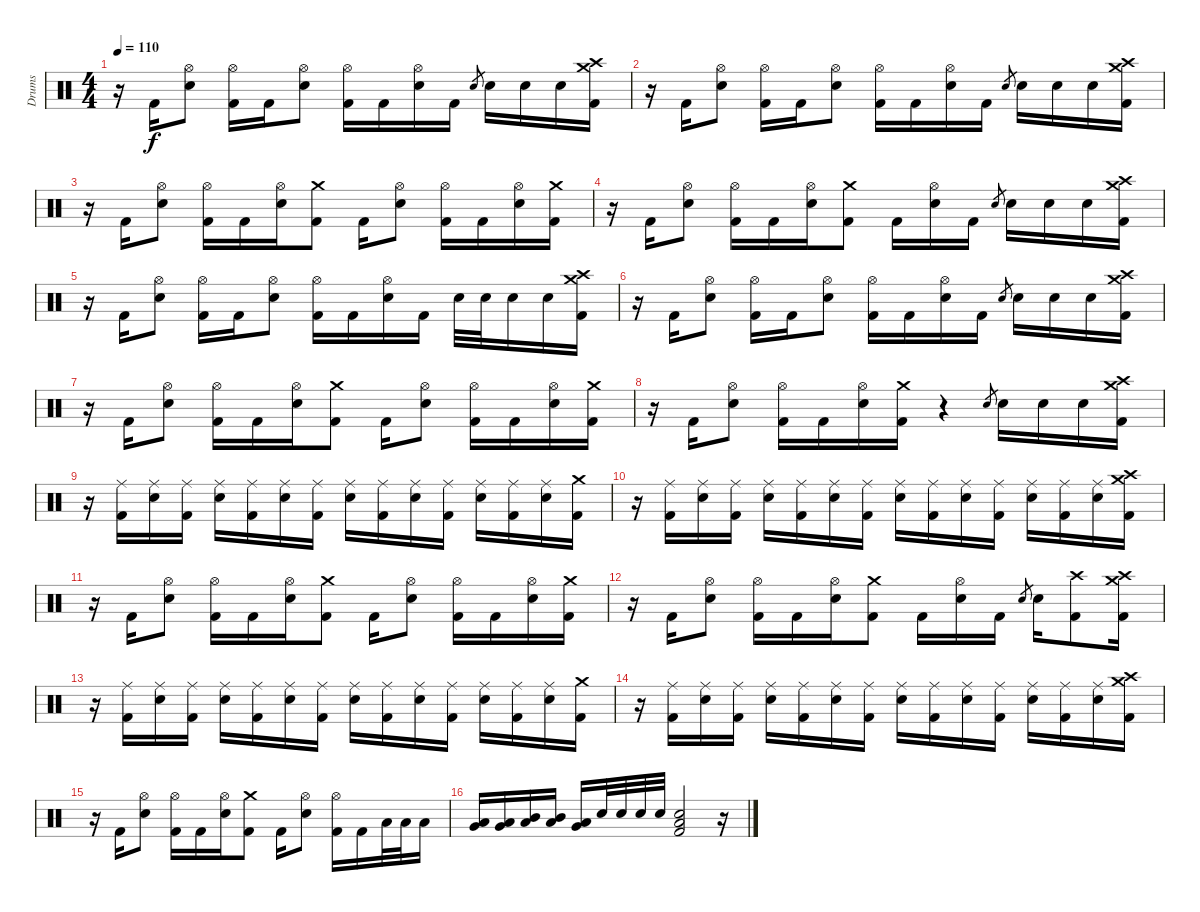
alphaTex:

\track ("Drums" "Drums") {instrument percussion}
\staff {score}
\articulation defaults
\ts (4 4)
\tempo 110
\clef neutral
\ks c
r.16{dy f} "Kick (hit) 2".16 ("Hi-Hat (open)" "Electric Snare (hit)").8 ("Hi-Hat (open)" "Kick (hit) 2").16 "Kick (hit) 2".16 ("Hi-Hat (open)" "Electric Snare (hit)").8 ("Hi-Hat (open)" "Kick (hit) 2").16 "Kick (hit) 2".16 ("Hi-Hat (open)" "Electric Snare (hit)").16 "Kick (hit) 2".16 "Electric Snare (hit)".8{gr} "Electric Snare (hit)".16 "Electric Snare (hit)".16 "Electric Snare (hit)".16 ("Crash medium (hit)" "Crash high (hit)" "Kick (hit) 2").16 |
r.16 "Kick (hit) 2".16 ("Hi-Hat (open)" "Electric Snare (hit)").8 ("Hi-Hat (open)" "Kick (hit) 2").16 "Kick (hit) 2".16 ("Hi-Hat (open)" "Electric Snare (hit)").8 ("Hi-Hat (open)" "Kick (hit) 2").16 "Kick (hit) 2".16 ("Hi-Hat (open)" "Electric Snare (hit)").16 "Kick (hit) 2".16 "Electric Snare (hit)".8{gr} "Electric Snare (hit)".16 "Electric Snare (hit)".16 "Electric Snare (hit)".16 ("Crash medium (hit)" "Crash high (hit)" "Kick (hit) 2").16 |
r.16 "Kick (hit) 2".16 ("Hi-Hat (open)" "Electric Snare (hit)").8 ("Hi-Hat (open)" "Kick (hit) 2").16 "Kick (hit) 2".16 ("Hi-Hat (open)" "Electric Snare (hit)").16 ("Crash medium (hit)" "Kick (hit) 2").8 "Kick (hit) 2".16 ("Hi-Hat (open)" "Electric Snare (hit)").8 ("Hi-Hat (open)" "Kick (hit) 2").16 "Kick (hit) 2".16 ("Hi-Hat (open)" "Electric Snare (hit)").16 ("Crash medium (hit)" "Kick (hit) 2").16 |
r.16 "Kick (hit) 2".16 ("Hi-Hat (open)" "Electric Snare (hit)").8 ("Hi-Hat (open)" "Kick (hit) 2").16 "Kick (hit) 2".16 ("Hi-Hat (open)" "Electric Snare (hit)").16 ("Crash medium (hit)" "Kick (hit) 2").8 "Kick (hit) 2".16 ("Hi-Hat (open)" "Electric Snare (hit)").16 "Kick (hit) 2".16 "Electric Snare (hit)".8{gr} "Electric Snare (hit)".16 "Electric Snare (hit)".16 "Electric Snare (hit)".16 ("Crash medium (hit)" "Crash high (hit)" "Kick (hit) 2").16 |
r.16 "Kick (hit) 2".16 ("Hi-Hat (open)" "Electric Snare (hit)").8 ("Hi-Hat (open)" "Kick (hit) 2").16 "Kick (hit) 2".16 ("Hi-Hat (open)" "Electric Snare (hit)").8 ("Hi-Hat (open)" "Kick (hit) 2").16 "Kick (hit) 2".16 ("Hi-Hat (open)" "Electric Snare (hit)").16 "Kick (hit) 2".16 "Electric Snare (hit)".32 "Electric Snare (hit)".32 "Electric Snare (hit)".16 "Electric Snare (hit)".16 ("Crash medium (hit)" "Crash high (hit)" "Kick (hit) 2").16 |
r.16 "Kick (hit) 2".16 ("Hi-Hat (open)" "Electric Snare (hit)").8 ("Hi-Hat (open)" "Kick (hit) 2").16 "Kick (hit) 2".16 ("Hi-Hat (open)" "Electric Snare (hit)").8 ("Hi-Hat (open)" "Kick (hit) 2").16 "Kick (hit) 2".16 ("Hi-Hat (open)" "Electric Snare (hit)").16 "Kick (hit) 2".16 "Electric Snare (hit)".8{gr} "Electric Snare (hit)".16 "Electric Snare (hit)".16 "Electric Snare (hit)".16 ("Crash medium (hit)" "Crash high (hit)" "Kick (hit) 2").16 |
r.16 "Kick (hit) 2".16 ("Hi-Hat (open)" "Electric Snare (hit)").8 ("Hi-Hat (open)" "Kick (hit) 2").16 "Kick (hit) 2".16 ("Hi-Hat (open)" "Electric Snare (hit)").16 ("Crash medium (hit)" "Kick (hit) 2").8 "Kick (hit) 2".16 ("Hi-Hat (open)" "Electric Snare (hit)").8 ("Hi-Hat (open)" "Kick (hit) 2").16 "Kick (hit) 2".16 ("Hi-Hat (open)" "Electric Snare (hit)").16 ("Crash medium (hit)" "Kick (hit) 2").16 |
r.16 "Kick (hit) 2".16 ("Hi-Hat (open)" "Electric Snare (hit)").8 ("Hi-Hat (open)" "Kick (hit) 2").16 "Kick (hit) 2".16 ("Hi-Hat (open)" "Electric Snare (hit)").16 ("Crash medium (hit)" "Kick (hit) 2").16 r.4{volume 0} "Electric Snare (hit)".8{gr} "Electric Snare (hit)".16{volume 15} "Electric Snare (hit)".16 "Electric Snare (hit)".16 ("Crash medium (hit)" "Crash high (hit)" "Kick (hit) 2").16 |
r.16 ("Ride (middle)" "Kick (hit) 2").16 ("Ride (middle)" "Electric Snare (hit)").16 ("Ride (middle)" "Kick (hit) 2").16 ("Ride (middle)" "Electric Snare (hit)").16 ("Ride (middle)" "Kick (hit) 2").16 ("Ride (middle)" "Electric Snare (hit)").16 ("Ride (middle)" "Kick (hit) 2").16 ("Ride (middle)" "Electric Snare (hit)").16 ("Ride (middle)" "Kick (hit) 2").16 ("Ride (middle)" "Electric Snare (hit)").16 ("Ride (middle)" "Kick (hit) 2").16 ("Ride (middle)" "Electric Snare (hit)").16 ("Ride (middle)" "Kick (hit) 2").16 ("Ride (middle)" "Electric Snare (hit)").16 ("Crash medium (hit)" "Kick (hit) 2").16 |
r.16 ("Ride (middle)" "Kick (hit) 2").16 ("Ride (middle)" "Electric Snare (hit)").16 ("Ride (middle)" "Kick (hit) 2").16 ("Ride (middle)" "Electric Snare (hit)").16 ("Ride (middle)" "Kick (hit) 2").16 ("Ride (middle)" "Electric Snare (hit)").16 ("Ride (middle)" "Kick (hit) 2").16 ("Ride (middle)" "Electric Snare (hit)").16 ("Ride (middle)" "Kick (hit) 2").16 ("Ride (middle)" "Electric Snare (hit)").16 ("Ride (middle)" "Kick (hit) 2").16 ("Ride (middle)" "Electric Snare (hit)").16 ("Ride (middle)" "Kick (hit) 2").16 ("Ride (middle)" "Electric Snare (hit)").16 ("Crash medium (hit)" "Crash high (hit)" "Kick (hit) 2").16 |
r.16 "Kick (hit) 2".16 ("Hi-Hat (open)" "Electric Snare (hit)").8 ("Hi-Hat (open)" "Kick (hit) 2").16 "Kick (hit) 2".16 ("Hi-Hat (open)" "Electric Snare (hit)").16 ("Crash medium (hit)" "Kick (hit) 2").8 "Kick (hit) 2".16 ("Hi-Hat (open)" "Electric Snare (hit)").8 ("Hi-Hat (open)" "Kick (hit) 2").16 "Kick (hit) 2".16 ("Hi-Hat (open)" "Electric Snare (hit)").16 ("Crash medium (hit)" "Kick (hit) 2").16 |
r.16 "Kick (hit) 2".16 ("Hi-Hat (open)" "Electric Snare (hit)").8 ("Hi-Hat (open)" "Kick (hit) 2").16 "Kick (hit) 2".16 ("Hi-Hat (open)" "Electric Snare (hit)").16 ("Crash medium (hit)" "Kick (hit) 2").8 "Kick (hit) 2".16 ("Hi-Hat (open)" "Electric Snare (hit)").16 "Kick (hit) 2".16 "Electric Snare (hit)".8{gr} "Electric Snare (hit)".16 ("Crash high (hit)" "Kick (hit) 2").8 ("Crash medium (hit)" "Crash high (hit)" "Kick (hit) 2").16 |
r.16 ("Ride (middle)" "Kick (hit) 2").16 ("Ride (middle)" "Electric Snare (hit)").16 ("Ride (middle)" "Kick (hit) 2").16 ("Ride (middle)" "Electric Snare (hit)").16 ("Ride (middle)" "Kick (hit) 2").16 ("Ride (middle)" "Electric Snare (hit)").16 ("Ride (middle)" "Kick (hit) 2").16 ("Ride (middle)" "Electric Snare (hit)").16 ("Ride (middle)" "Kick (hit) 2").16 ("Ride (middle)" "Electric Snare (hit)").16 ("Ride (middle)" "Kick (hit) 2").16 ("Ride (middle)" "Electric Snare (hit)").16 ("Ride (middle)" "Kick (hit) 2").16 ("Ride (middle)" "Electric Snare (hit)").16 ("Crash medium (hit)" "Kick (hit) 2").16 |
r.16 ("Ride (middle)" "Kick (hit) 2").16 ("Ride (middle)" "Electric Snare (hit)").16 ("Ride (middle)" "Kick (hit) 2").16 ("Ride (middle)" "Electric Snare (hit)").16 ("Ride (middle)" "Kick (hit) 2").16 ("Ride (middle)" "Electric Snare (hit)").16 ("Ride (middle)" "Kick (hit) 2").16 ("Ride (middle)" "Electric Snare (hit)").16 ("Ride (middle)" "Kick (hit) 2").16 ("Ride (middle)" "Electric Snare (hit)").16 ("Ride (middle)" "Kick (hit) 2").16 ("Ride (middle)" "Electric Snare (hit)").16 ("Ride (middle)" "Kick (hit) 2").16 ("Ride (middle)" "Electric Snare (hit)").16 ("Crash medium (hit)" "Crash high (hit)" "Kick (hit) 2").16 |
r.16 "Kick (hit) 2".16 ("Hi-Hat (open)" "Electric Snare (hit)").8 ("Hi-Hat (open)" "Kick (hit) 2").16 "Kick (hit) 2".16 ("Hi-Hat (open)" "Electric Snare (hit)").16 ("Crash medium (hit)" "Kick (hit) 2").8 "Kick (hit) 2".16 ("Hi-Hat (open)" "Electric Snare (hit)").8 ("Hi-Hat (open)" "Kick (hit) 2").16 "Kick (hit) 2".16 "Low Tom (hit)".32 "Low Tom (hit)".32 "Low Tom (hit)".16 |
("Very Low Tom (hit)" "Low Tom (hit)").16 ("Very Low Tom (hit)" "Low Tom (hit)").16 ("Low Tom (hit)" "Mid Tom (hit)").16 ("Low Tom (hit)" "Mid Tom (hit)").16 ("Very Low Tom (hit)" "Low Tom (hit)").16 "Electric Snare (hit)".32 "Electric Snare (hit)".32 "Electric Snare (hit)".32 "Electric Snare (hit)".32 ("Low Floor Tom (hit)" "Electric Snare (hit)" "Kick (hit) 2").2 r.16
